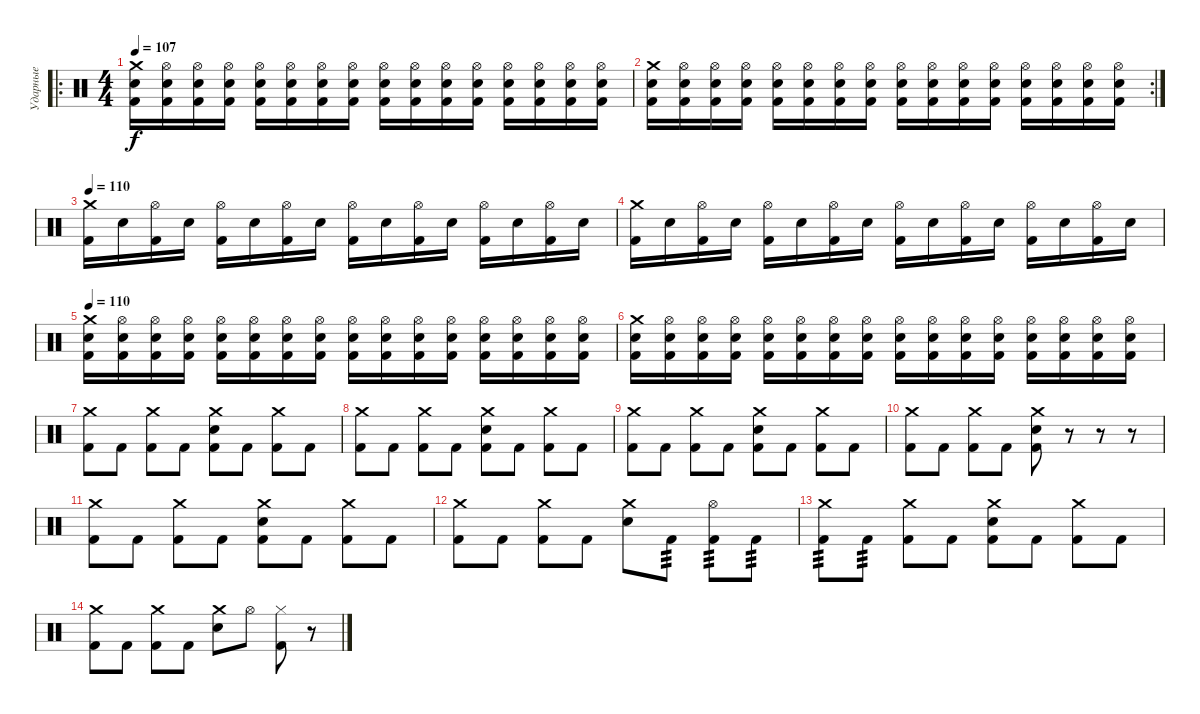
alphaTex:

\track ("Ударные" "Ударные") {instrument percussion}
\staff {score}
\articulation defaults
\ro
\ts (4 4)
\tempo 110
\tempo 107
\clef neutral
\ks c
("Crash medium (hit)" "Electric Snare (hit)" "Kick (hit) 2").16{dy f} ("Hi-Hat (open)" "Electric Snare (hit)" "Kick (hit) 2").16 ("Hi-Hat (open)" "Electric Snare (hit)" "Kick (hit) 2").16 ("Hi-Hat (open)" "Electric Snare (hit)" "Kick (hit) 2").16 ("Hi-Hat (open)" "Electric Snare (hit)" "Kick (hit) 2").16 ("Hi-Hat (open)" "Electric Snare (hit)" "Kick (hit) 2").16 ("Hi-Hat (open)" "Electric Snare (hit)" "Kick (hit) 2").16 ("Hi-Hat (open)" "Electric Snare (hit)" "Kick (hit) 2").16 ("Hi-Hat (open)" "Electric Snare (hit)" "Kick (hit) 2").16 ("Hi-Hat (open)" "Electric Snare (hit)" "Kick (hit) 2").16 ("Hi-Hat (open)" "Electric Snare (hit)" "Kick (hit) 2").16 ("Hi-Hat (open)" "Electric Snare (hit)" "Kick (hit) 2").16 ("Hi-Hat (open)" "Electric Snare (hit)" "Kick (hit) 2").16 ("Hi-Hat (open)" "Electric Snare (hit)" "Kick (hit) 2").16 ("Hi-Hat (open)" "Electric Snare (hit)" "Kick (hit) 2").16 ("Hi-Hat (open)" "Electric Snare (hit)" "Kick (hit) 2").16 |
\rc 2
("Crash medium (hit)" "Electric Snare (hit)" "Kick (hit) 2").16 ("Hi-Hat (open)" "Electric Snare (hit)" "Kick (hit) 2").16 ("Hi-Hat (open)" "Electric Snare (hit)" "Kick (hit) 2").16 ("Hi-Hat (open)" "Electric Snare (hit)" "Kick (hit) 2").16 ("Hi-Hat (open)" "Electric Snare (hit)" "Kick (hit) 2").16 ("Hi-Hat (open)" "Electric Snare (hit)" "Kick (hit) 2").16 ("Hi-Hat (open)" "Electric Snare (hit)" "Kick (hit) 2").16 ("Hi-Hat (open)" "Electric Snare (hit)" "Kick (hit) 2").16 ("Hi-Hat (open)" "Electric Snare (hit)" "Kick (hit) 2").16 ("Hi-Hat (open)" "Electric Snare (hit)" "Kick (hit) 2").16 ("Hi-Hat (open)" "Electric Snare (hit)" "Kick (hit) 2").16 ("Hi-Hat (open)" "Electric Snare (hit)" "Kick (hit) 2").16 ("Hi-Hat (open)" "Electric Snare (hit)" "Kick (hit) 2").16 ("Hi-Hat (open)" "Electric Snare (hit)" "Kick (hit) 2").16 ("Hi-Hat (open)" "Electric Snare (hit)" "Kick (hit) 2").16 ("Hi-Hat (open)" "Electric Snare (hit)" "Kick (hit) 2").16 |
\tempo 110
("Crash medium (hit)" "Kick (hit) 2").16 "Electric Snare (hit)".16 ("Hi-Hat (open)" "Kick (hit) 2").16 "Electric Snare (hit)".16 ("Hi-Hat (open)" "Kick (hit) 2").16 "Electric Snare (hit)".16 ("Hi-Hat (open)" "Kick (hit) 2").16 "Electric Snare (hit)".16 ("Hi-Hat (open)" "Kick (hit) 2").16 "Electric Snare (hit)".16 ("Hi-Hat (open)" "Kick (hit) 2").16 "Electric Snare (hit)".16 ("Hi-Hat (open)" "Kick (hit) 2").16 "Electric Snare (hit)".16 ("Hi-Hat (open)" "Kick (hit) 2").16 "Electric Snare (hit)".16 |
("Crash medium (hit)" "Kick (hit) 2").16 "Electric Snare (hit)".16 ("Hi-Hat (open)" "Kick (hit) 2").16 "Electric Snare (hit)".16 ("Hi-Hat (open)" "Kick (hit) 2").16 "Electric Snare (hit)".16 ("Hi-Hat (open)" "Kick (hit) 2").16 "Electric Snare (hit)".16 ("Hi-Hat (open)" "Kick (hit) 2").16 "Electric Snare (hit)".16 ("Hi-Hat (open)" "Kick (hit) 2").16 "Electric Snare (hit)".16 ("Hi-Hat (open)" "Kick (hit) 2").16 "Electric Snare (hit)".16 ("Hi-Hat (open)" "Kick (hit) 2").16 "Electric Snare (hit)".16 |
\tempo 110
("Crash medium (hit)" "Electric Snare (hit)" "Kick (hit) 2").16 ("Hi-Hat (open)" "Electric Snare (hit)" "Kick (hit) 2").16 ("Hi-Hat (open)" "Electric Snare (hit)" "Kick (hit) 2").16 ("Hi-Hat (open)" "Electric Snare (hit)" "Kick (hit) 2").16 ("Hi-Hat (open)" "Electric Snare (hit)" "Kick (hit) 2").16 ("Hi-Hat (open)" "Electric Snare (hit)" "Kick (hit) 2").16 ("Hi-Hat (open)" "Electric Snare (hit)" "Kick (hit) 2").16 ("Hi-Hat (open)" "Electric Snare (hit)" "Kick (hit) 2").16 ("Hi-Hat (open)" "Electric Snare (hit)" "Kick (hit) 2").16 ("Hi-Hat (open)" "Electric Snare (hit)" "Kick (hit) 2").16 ("Hi-Hat (open)" "Electric Snare (hit)" "Kick (hit) 2").16 ("Hi-Hat (open)" "Electric Snare (hit)" "Kick (hit) 2").16 ("Hi-Hat (open)" "Electric Snare (hit)" "Kick (hit) 2").16 ("Hi-Hat (open)" "Electric Snare (hit)" "Kick (hit) 2").16 ("Hi-Hat (open)" "Electric Snare (hit)" "Kick (hit) 2").16 ("Hi-Hat (open)" "Electric Snare (hit)" "Kick (hit) 2").16 |
("Crash medium (hit)" "Electric Snare (hit)" "Kick (hit) 2").16 ("Hi-Hat (open)" "Electric Snare (hit)" "Kick (hit) 2").16 ("Hi-Hat (open)" "Electric Snare (hit)" "Kick (hit) 2").16 ("Hi-Hat (open)" "Electric Snare (hit)" "Kick (hit) 2").16 ("Hi-Hat (open)" "Electric Snare (hit)" "Kick (hit) 2").16 ("Hi-Hat (open)" "Electric Snare (hit)" "Kick (hit) 2").16 ("Hi-Hat (open)" "Electric Snare (hit)" "Kick (hit) 2").16 ("Hi-Hat (open)" "Electric Snare (hit)" "Kick (hit) 2").16 ("Hi-Hat (open)" "Electric Snare (hit)" "Kick (hit) 2").16 ("Hi-Hat (open)" "Electric Snare (hit)" "Kick (hit) 2").16 ("Hi-Hat (open)" "Electric Snare (hit)" "Kick (hit) 2").16 ("Hi-Hat (open)" "Electric Snare (hit)" "Kick (hit) 2").16 ("Hi-Hat (open)" "Electric Snare (hit)" "Kick (hit) 2").16 ("Hi-Hat (open)" "Electric Snare (hit)" "Kick (hit) 2").16 ("Hi-Hat (open)" "Electric Snare (hit)" "Kick (hit) 2").16 ("Hi-Hat (open)" "Electric Snare (hit)" "Kick (hit) 2").16 |
("Crash medium (hit)" "Kick (hit) 2").8 "Kick (hit) 2".8 ("Crash medium (hit)" "Kick (hit) 2").8 "Kick (hit) 2".8 ("Crash medium (hit)" "Electric Snare (hit)" "Kick (hit) 2").8 "Kick (hit) 2".8 ("Crash medium (hit)" "Kick (hit) 2").8 "Kick (hit) 2".8 |
("Crash medium (hit)" "Kick (hit) 2").8 "Kick (hit) 2".8 ("Crash medium (hit)" "Kick (hit) 2").8 "Kick (hit) 2".8 ("Crash medium (hit)" "Electric Snare (hit)" "Kick (hit) 2").8 "Kick (hit) 2".8 ("Crash medium (hit)" "Kick (hit) 2").8 "Kick (hit) 2".8 |
("Crash medium (hit)" "Kick (hit) 2").8 "Kick (hit) 2".8 ("Crash medium (hit)" "Kick (hit) 2").8 "Kick (hit) 2".8 ("Crash medium (hit)" "Electric Snare (hit)" "Kick (hit) 2").8 "Kick (hit) 2".8 ("Crash medium (hit)" "Kick (hit) 2").8 "Kick (hit) 2".8 |
("Crash medium (hit)" "Kick (hit) 2").8 "Kick (hit) 2".8 ("Crash medium (hit)" "Kick (hit) 2").8 "Kick (hit) 2".8 ("Crash medium (hit)" "Electric Snare (hit)" "Kick (hit) 2").8 r.8 r.8 r.8 |
("Crash medium (hit)" "Kick (hit) 2").8 "Kick (hit) 2".8 ("Crash medium (hit)" "Kick (hit) 2").8 "Kick (hit) 2".8 ("Crash medium (hit)" "Electric Snare (hit)" "Kick (hit) 2").8 "Kick (hit) 2".8 ("Crash medium (hit)" "Kick (hit) 2").8 "Kick (hit) 2".8 |
("Crash medium (hit)" "Kick (hit) 2").8 "Kick (hit) 2".8 ("Crash medium (hit)" "Kick (hit) 2").8 "Kick (hit) 2".8 ("Crash medium (hit)" "Electric Snare (hit)").8 "Kick (hit) 2".8{tp 3} ("Hi-Hat (open)" "Kick (hit) 2").8{tp 3} "Kick (hit) 2".8{tp 3} |
("Crash medium (hit)" "Kick (hit) 2").8{tp 3} "Kick (hit) 2".8{tp 3} ("Crash medium (hit)" "Kick (hit) 2").8 "Kick (hit) 2".8 ("Crash medium (hit)" "Electric Snare (hit)" "Kick (hit) 2").8 "Kick (hit) 2".8 ("Crash medium (hit)" "Kick (hit) 2").8 "Kick (hit) 2".8 |
("Crash medium (hit)" "Kick (hit) 2").8 "Kick (hit) 2".8 ("Crash medium (hit)" "Kick (hit) 2").8 "Kick (hit) 2".8 ("Crash medium (hit)" "Electric Snare (hit)").8 "Hi-Hat (open)".8 ("Hi-Hat (closed)" "Kick (hit) 2").8 r.8
